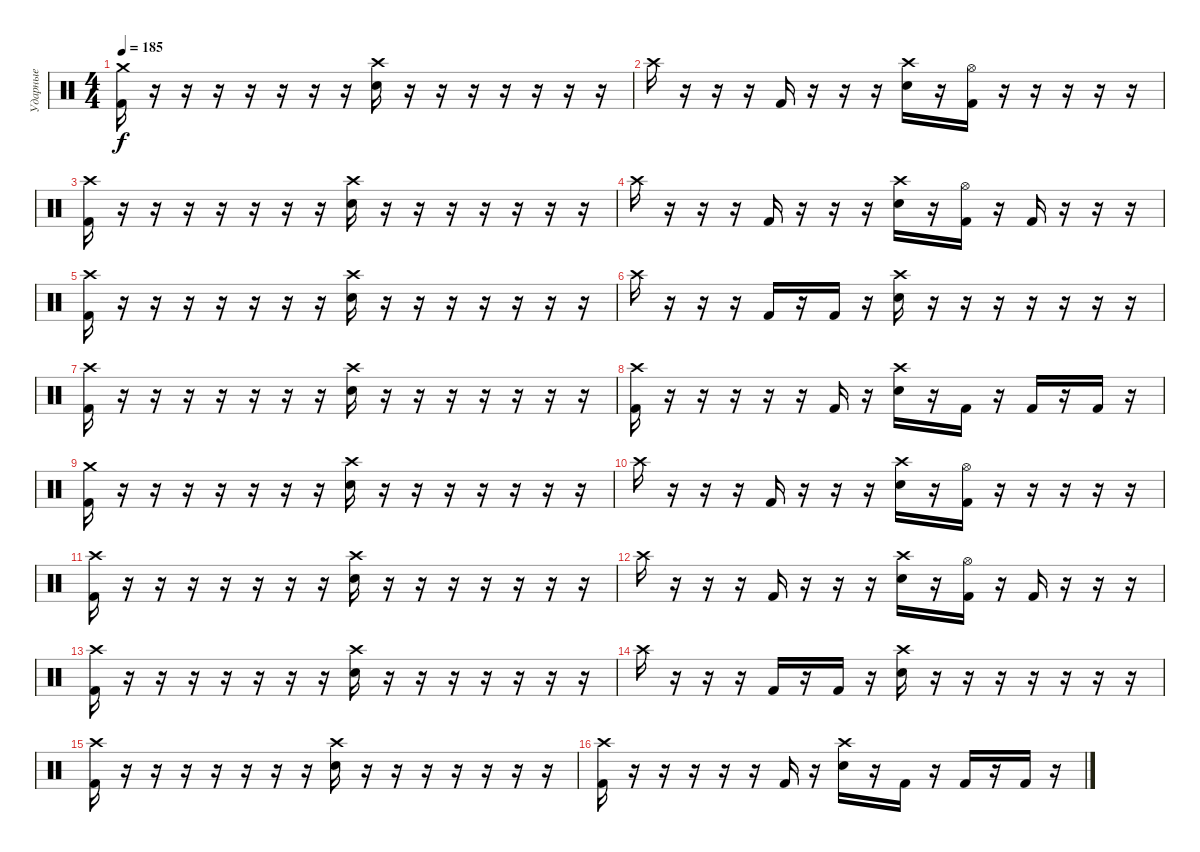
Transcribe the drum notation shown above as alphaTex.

\track ("Ударные" "Ударные") {instrument percussion}
\staff {score}
\articulation defaults
\ts (4 4)
\tempo 185
\clef neutral
\ks c
("Crash medium (hit)" "Kick (hit) 2").16{dy f} r.16 r.16 r.16 r.16 r.16 r.16 r.16 ("Crash high (hit)" "Electric Snare (hit)").16 r.16 r.16 r.16 r.16 r.16 r.16 r.16 |
"Crash high (hit)".16 r.16 r.16 r.16 "Kick (hit) 2".16 r.16 r.16 r.16 ("Crash high (hit)" "Electric Snare (hit)").16 r.16 ("Hi-Hat (open)" "Kick (hit) 2").16 r.16 r.16 r.16 r.16 r.16 |
("Crash high (hit)" "Kick (hit) 2").16 r.16 r.16 r.16 r.16 r.16 r.16 r.16 ("Crash high (hit)" "Electric Snare (hit)").16 r.16 r.16 r.16 r.16 r.16 r.16 r.16 |
"Crash high (hit)".16 r.16 r.16 r.16 "Kick (hit) 2".16 r.16 r.16 r.16 ("Crash high (hit)" "Electric Snare (hit)").16 r.16 ("Hi-Hat (open)" "Kick (hit) 2").16 r.16 "Kick (hit) 2".16 r.16 r.16 r.16 |
("Crash high (hit)" "Kick (hit) 2").16 r.16 r.16 r.16 r.16 r.16 r.16 r.16 ("Crash high (hit)" "Electric Snare (hit)").16 r.16 r.16 r.16 r.16 r.16 r.16 r.16 |
"Crash high (hit)".16 r.16 r.16 r.16 "Kick (hit) 2".16 r.16 "Kick (hit) 2".16 r.16 ("Crash high (hit)" "Electric Snare (hit)").16 r.16 r.16 r.16 r.16 r.16 r.16 r.16 |
("Crash high (hit)" "Kick (hit) 2").16 r.16 r.16 r.16 r.16 r.16 r.16 r.16 ("Crash high (hit)" "Electric Snare (hit)").16 r.16 r.16 r.16 r.16 r.16 r.16 r.16 |
("Crash high (hit)" "Kick (hit) 2").16 r.16 r.16 r.16 r.16 r.16 "Kick (hit) 2".16 r.16 ("Crash high (hit)" "Electric Snare (hit)").16 r.16 "Kick (hit) 2".16 r.16 "Kick (hit) 2".16 r.16 "Kick (hit) 2".16 r.16 |
("Crash medium (hit)" "Kick (hit) 2").16 r.16 r.16 r.16 r.16 r.16 r.16 r.16 ("Crash high (hit)" "Electric Snare (hit)").16 r.16 r.16 r.16 r.16 r.16 r.16 r.16 |
"Crash high (hit)".16 r.16 r.16 r.16 "Kick (hit) 2".16 r.16 r.16 r.16 ("Crash high (hit)" "Electric Snare (hit)").16 r.16 ("Hi-Hat (open)" "Kick (hit) 2").16 r.16 r.16 r.16 r.16 r.16 |
("Crash high (hit)" "Kick (hit) 2").16 r.16 r.16 r.16 r.16 r.16 r.16 r.16 ("Crash high (hit)" "Electric Snare (hit)").16 r.16 r.16 r.16 r.16 r.16 r.16 r.16 |
"Crash high (hit)".16 r.16 r.16 r.16 "Kick (hit) 2".16 r.16 r.16 r.16 ("Crash high (hit)" "Electric Snare (hit)").16 r.16 ("Hi-Hat (open)" "Kick (hit) 2").16 r.16 "Kick (hit) 2".16 r.16 r.16 r.16 |
("Crash high (hit)" "Kick (hit) 2").16 r.16 r.16 r.16 r.16 r.16 r.16 r.16 ("Crash high (hit)" "Electric Snare (hit)").16 r.16 r.16 r.16 r.16 r.16 r.16 r.16 |
"Crash high (hit)".16 r.16 r.16 r.16 "Kick (hit) 2".16 r.16 "Kick (hit) 2".16 r.16 ("Crash high (hit)" "Electric Snare (hit)").16 r.16 r.16 r.16 r.16 r.16 r.16 r.16 |
("Crash high (hit)" "Kick (hit) 2").16 r.16 r.16 r.16 r.16 r.16 r.16 r.16 ("Crash high (hit)" "Electric Snare (hit)").16 r.16 r.16 r.16 r.16 r.16 r.16 r.16 |
("Crash high (hit)" "Kick (hit) 2").16 r.16 r.16 r.16 r.16 r.16 "Kick (hit) 2".16 r.16 ("Crash high (hit)" "Electric Snare (hit)").16 r.16 "Kick (hit) 2".16 r.16 "Kick (hit) 2".16 r.16 "Kick (hit) 2".16 r.16
